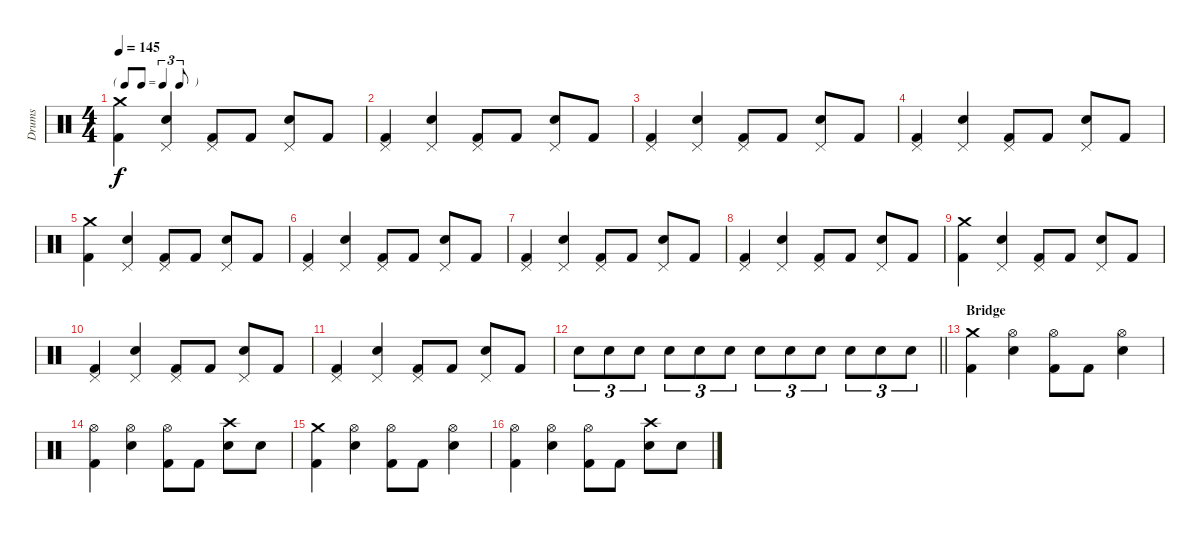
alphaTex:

\track ("Drums" "Drums") {instrument percussion}
\staff {score}
\articulation defaults
\ts (4 4)
\tf triplet8th
\tempo 145
\clef neutral
\ks c
("Crash medium (hit)" "Kick (hit) 2").4{dy f} ("Pedal Hi-Hat (hit)" "Electric Snare (hit)").4 ("Pedal Hi-Hat (hit)" "Kick (hit) 2").8 "Kick (hit) 2".8 ("Pedal Hi-Hat (hit)" "Electric Snare (hit)").8 "Kick (hit) 2".8 |
("Pedal Hi-Hat (hit)" "Kick (hit) 2").4 ("Pedal Hi-Hat (hit)" "Electric Snare (hit)").4 ("Pedal Hi-Hat (hit)" "Kick (hit) 2").8 "Kick (hit) 2".8 ("Pedal Hi-Hat (hit)" "Electric Snare (hit)").8 "Kick (hit) 2".8 |
("Pedal Hi-Hat (hit)" "Kick (hit) 2").4 ("Pedal Hi-Hat (hit)" "Electric Snare (hit)").4 ("Pedal Hi-Hat (hit)" "Kick (hit) 2").8 "Kick (hit) 2".8 ("Pedal Hi-Hat (hit)" "Electric Snare (hit)").8 "Kick (hit) 2".8 |
("Pedal Hi-Hat (hit)" "Kick (hit) 2").4 ("Pedal Hi-Hat (hit)" "Electric Snare (hit)").4 ("Pedal Hi-Hat (hit)" "Kick (hit) 2").8 "Kick (hit) 2".8 ("Pedal Hi-Hat (hit)" "Electric Snare (hit)").8 "Kick (hit) 2".8 |
("Crash medium (hit)" "Kick (hit) 2").4 ("Pedal Hi-Hat (hit)" "Electric Snare (hit)").4 ("Pedal Hi-Hat (hit)" "Kick (hit) 2").8 "Kick (hit) 2".8 ("Pedal Hi-Hat (hit)" "Electric Snare (hit)").8 "Kick (hit) 2".8 |
("Pedal Hi-Hat (hit)" "Kick (hit) 2").4 ("Pedal Hi-Hat (hit)" "Electric Snare (hit)").4 ("Pedal Hi-Hat (hit)" "Kick (hit) 2").8 "Kick (hit) 2".8 ("Pedal Hi-Hat (hit)" "Electric Snare (hit)").8 "Kick (hit) 2".8 |
("Pedal Hi-Hat (hit)" "Kick (hit) 2").4 ("Pedal Hi-Hat (hit)" "Electric Snare (hit)").4 ("Pedal Hi-Hat (hit)" "Kick (hit) 2").8 "Kick (hit) 2".8 ("Pedal Hi-Hat (hit)" "Electric Snare (hit)").8 "Kick (hit) 2".8 |
("Pedal Hi-Hat (hit)" "Kick (hit) 2").4 ("Pedal Hi-Hat (hit)" "Electric Snare (hit)").4 ("Pedal Hi-Hat (hit)" "Kick (hit) 2").8 "Kick (hit) 2".8 ("Pedal Hi-Hat (hit)" "Electric Snare (hit)").8 "Kick (hit) 2".8 |
("Crash medium (hit)" "Kick (hit) 2").4 ("Pedal Hi-Hat (hit)" "Electric Snare (hit)").4 ("Pedal Hi-Hat (hit)" "Kick (hit) 2").8 "Kick (hit) 2".8 ("Pedal Hi-Hat (hit)" "Electric Snare (hit)").8 "Kick (hit) 2".8 |
("Pedal Hi-Hat (hit)" "Kick (hit) 2").4 ("Pedal Hi-Hat (hit)" "Electric Snare (hit)").4 ("Pedal Hi-Hat (hit)" "Kick (hit) 2").8 "Kick (hit) 2".8 ("Pedal Hi-Hat (hit)" "Electric Snare (hit)").8 "Kick (hit) 2".8 |
("Pedal Hi-Hat (hit)" "Kick (hit) 2").4 ("Pedal Hi-Hat (hit)" "Electric Snare (hit)").4 ("Pedal Hi-Hat (hit)" "Kick (hit) 2").8 "Kick (hit) 2".8 ("Pedal Hi-Hat (hit)" "Electric Snare (hit)").8 "Kick (hit) 2".8 |
\barLineRight lightlight "Electric Snare (hit)".8{tu (3 2)} "Electric Snare (hit)".8{tu (3 2)} "Electric Snare (hit)".8{tu (3 2)} "Electric Snare (hit)".8{tu (3 2)} "Electric Snare (hit)".8{tu (3 2)} "Electric Snare (hit)".8{tu (3 2)} "Electric Snare (hit)".8{tu (3 2)} "Electric Snare (hit)".8{tu (3 2)} "Electric Snare (hit)".8{tu (3 2)} "Electric Snare (hit)".8{tu (3 2)} "Electric Snare (hit)".8{tu (3 2)} "Electric Snare (hit)".8{tu (3 2)}
|
\section ("" "Bridge")
("Crash medium (hit)" "Kick (hit) 2").4 ("Hi-Hat (open)" "Electric Snare (hit)").4 ("Hi-Hat (open)" "Kick (hit) 2").8 "Kick (hit) 2".8 ("Hi-Hat (open)" "Electric Snare (hit)").4 |
("Hi-Hat (open)" "Kick (hit) 2").4 ("Hi-Hat (open)" "Electric Snare (hit)").4 ("Hi-Hat (open)" "Kick (hit) 2").8 "Kick (hit) 2".8 ("Crash high (hit)" "Electric Snare (hit)").8 "Electric Snare (hit)".8 |
("Crash medium (hit)" "Kick (hit) 2").4 ("Hi-Hat (open)" "Electric Snare (hit)").4 ("Hi-Hat (open)" "Kick (hit) 2").8 "Kick (hit) 2".8 ("Hi-Hat (open)" "Electric Snare (hit)").4 |
("Hi-Hat (open)" "Kick (hit) 2").4 ("Hi-Hat (open)" "Electric Snare (hit)").4 ("Hi-Hat (open)" "Kick (hit) 2").8 "Kick (hit) 2".8 ("Crash high (hit)" "Electric Snare (hit)").8 "Electric Snare (hit)".8
